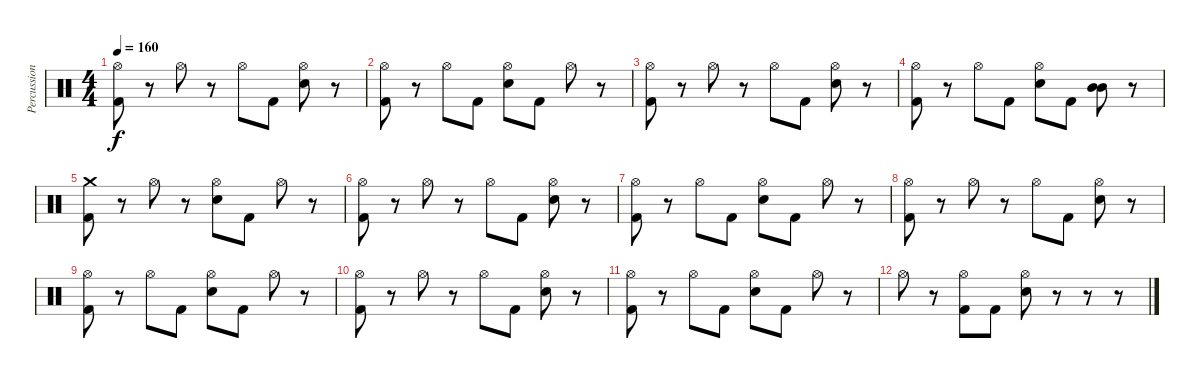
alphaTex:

\track ("Percussion" "Percussion") {instrument percussion}
\staff {score}
\articulation defaults
\ts (4 4)
\tempo 160
\clef neutral
\ks c
("Hi-Hat (open)" "Kick (hit) 2").8{dy f} r.8 "Hi-Hat (open)".8 r.8 "Hi-Hat (open)".8 "Kick (hit) 2".8 ("Hi-Hat (open)" "Electric Snare (hit)").8 r.8 |
("Hi-Hat (open)" "Kick (hit) 2").8 r.8 "Hi-Hat (open)".8 "Kick (hit) 2".8 ("Hi-Hat (open)" "Electric Snare (hit)").8 "Kick (hit) 2".8 "Hi-Hat (open)".8 r.8 |
("Hi-Hat (open)" "Kick (hit) 2").8 r.8 "Hi-Hat (open)".8 r.8 "Hi-Hat (open)".8 "Kick (hit) 2".8 ("Hi-Hat (open)" "Electric Snare (hit)").8 r.8 |
("Hi-Hat (open)" "Kick (hit) 2").8 r.8 "Hi-Hat (open)".8 "Kick (hit) 2".8 ("Hi-Hat (open)" "Electric Snare (hit)").8 "Kick (hit) 2".8 ("Mid Tom (hit)" "Mid Tom (hit)").8 r.8 |
("Crash medium (hit)" "Kick (hit) 2").8 r.8 "Hi-Hat (open)".8 r.8 ("Hi-Hat (open)" "Electric Snare (hit)").8 "Kick (hit) 2".8 "Hi-Hat (open)".8 r.8 |
("Hi-Hat (open)" "Kick (hit) 2").8 r.8 "Hi-Hat (open)".8 r.8 "Hi-Hat (open)".8 "Kick (hit) 2".8 ("Hi-Hat (open)" "Electric Snare (hit)").8 r.8 |
("Hi-Hat (open)" "Kick (hit) 2").8 r.8 "Hi-Hat (open)".8 "Kick (hit) 2".8 ("Hi-Hat (open)" "Electric Snare (hit)").8 "Kick (hit) 2".8 "Hi-Hat (open)".8 r.8 |
("Hi-Hat (open)" "Kick (hit) 2").8 r.8 "Hi-Hat (open)".8 r.8 "Hi-Hat (open)".8 "Kick (hit) 2".8 ("Hi-Hat (open)" "Electric Snare (hit)").8 r.8 |
("Hi-Hat (open)" "Kick (hit) 2").8 r.8 "Hi-Hat (open)".8 "Kick (hit) 2".8 ("Hi-Hat (open)" "Electric Snare (hit)").8 "Kick (hit) 2".8 "Hi-Hat (open)".8 r.8 |
("Hi-Hat (open)" "Kick (hit) 2").8 r.8 "Hi-Hat (open)".8 r.8 "Hi-Hat (open)".8 "Kick (hit) 2".8 ("Hi-Hat (open)" "Electric Snare (hit)").8 r.8 |
("Hi-Hat (open)" "Kick (hit) 2").8 r.8 "Hi-Hat (open)".8 "Kick (hit) 2".8 ("Hi-Hat (open)" "Electric Snare (hit)").8 "Kick (hit) 2".8 "Hi-Hat (open)".8 r.8 |
"Hi-Hat (open)".8 r.8 ("Hi-Hat (open)" "Kick (hit) 2").8 "Kick (hit) 2".8 ("Hi-Hat (open)" "Electric Snare (hit)").8 r.8 r.8 r.8
